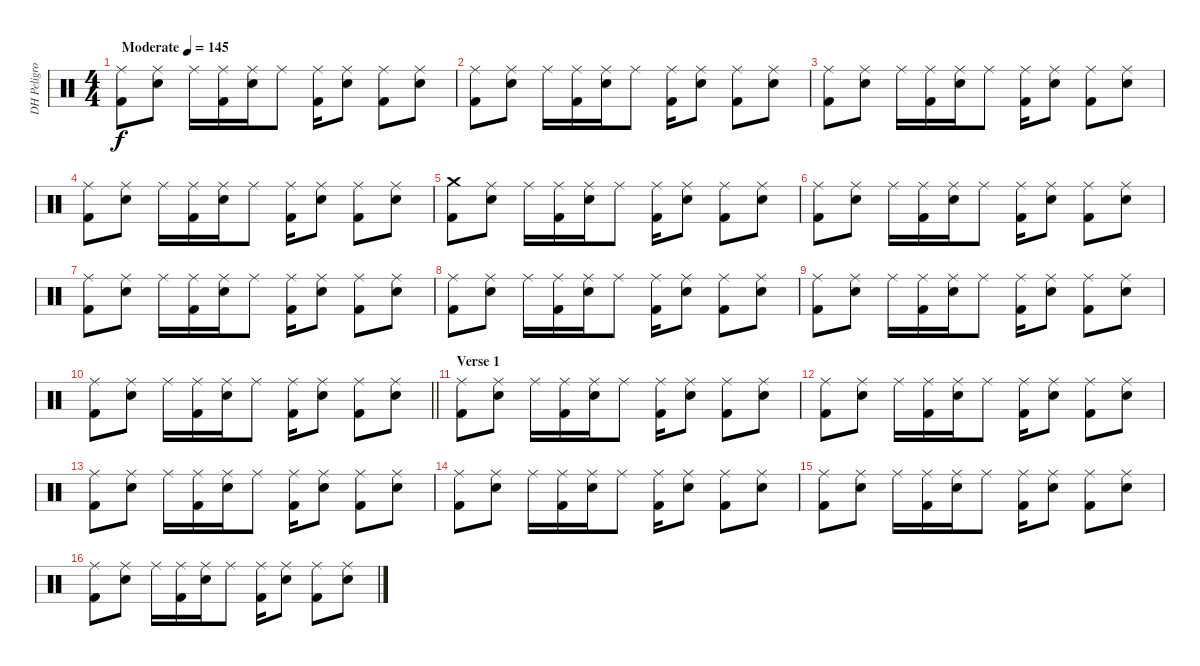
\track ("DH Peligro" "DH Peligro") {instrument percussion}
\staff {score}
\articulation defaults
\ts (4 4)
\tempo (145 "Moderate")
\clef neutral
\ks c
("Ride (middle)" "Kick (hit) 2").8{dy f} ("Ride (middle)" "Snare (hit) 2").8 "Ride (middle)".16 ("Ride (middle)" "Kick (hit) 2").16 ("Ride (middle)" "Snare (hit) 2").16 "Ride (middle)".8 ("Ride (middle)" "Kick (hit) 2").16 ("Ride (middle)" "Snare (hit) 2").8 ("Ride (middle)" "Kick (hit) 2").8 ("Ride (middle)" "Snare (hit) 2").8 |
("Ride (middle)" "Kick (hit) 2").8 ("Ride (middle)" "Snare (hit) 2").8 "Ride (middle)".16 ("Ride (middle)" "Kick (hit) 2").16 ("Ride (middle)" "Snare (hit) 2").16 "Ride (middle)".8 ("Ride (middle)" "Kick (hit) 2").16 ("Ride (middle)" "Snare (hit) 2").8 ("Ride (middle)" "Kick (hit) 2").8 ("Ride (middle)" "Snare (hit) 2").8 |
("Ride (middle)" "Kick (hit) 2").8 ("Ride (middle)" "Snare (hit) 2").8 "Ride (middle)".16 ("Ride (middle)" "Kick (hit) 2").16 ("Ride (middle)" "Snare (hit) 2").16 "Ride (middle)".8 ("Ride (middle)" "Kick (hit) 2").16 ("Ride (middle)" "Snare (hit) 2").8 ("Ride (middle)" "Kick (hit) 2").8 ("Ride (middle)" "Snare (hit) 2").8 |
("Ride (middle)" "Kick (hit) 2").8 ("Ride (middle)" "Snare (hit) 2").8 "Ride (middle)".16 ("Ride (middle)" "Kick (hit) 2").16 ("Ride (middle)" "Snare (hit) 2").16 "Ride (middle)".8 ("Ride (middle)" "Kick (hit) 2").16 ("Ride (middle)" "Snare (hit) 2").8 ("Ride (middle)" "Kick (hit) 2").8 ("Ride (middle)" "Snare (hit) 2").8 |
("Crash medium (hit)" "Kick (hit) 2").8 ("Ride (middle)" "Snare (hit) 2").8 "Ride (middle)".16 ("Ride (middle)" "Kick (hit) 2").16 ("Ride (middle)" "Snare (hit) 2").16 "Ride (middle)".8 ("Ride (middle)" "Kick (hit) 2").16 ("Ride (middle)" "Snare (hit) 2").8 ("Ride (middle)" "Kick (hit) 2").8 ("Ride (middle)" "Snare (hit) 2").8 |
("Ride (middle)" "Kick (hit) 2").8 ("Ride (middle)" "Snare (hit) 2").8 "Ride (middle)".16 ("Ride (middle)" "Kick (hit) 2").16 ("Ride (middle)" "Snare (hit) 2").16 "Ride (middle)".8 ("Ride (middle)" "Kick (hit) 2").16 ("Ride (middle)" "Snare (hit) 2").8 ("Ride (middle)" "Kick (hit) 2").8 ("Ride (middle)" "Snare (hit) 2").8 |
("Ride (middle)" "Kick (hit) 2").8 ("Ride (middle)" "Snare (hit) 2").8 "Ride (middle)".16 ("Ride (middle)" "Kick (hit) 2").16 ("Ride (middle)" "Snare (hit) 2").16 "Ride (middle)".8 ("Ride (middle)" "Kick (hit) 2").16 ("Ride (middle)" "Snare (hit) 2").8 ("Ride (middle)" "Kick (hit) 2").8 ("Ride (middle)" "Snare (hit) 2").8 |
("Ride (middle)" "Kick (hit) 2").8 ("Ride (middle)" "Snare (hit) 2").8 "Ride (middle)".16 ("Ride (middle)" "Kick (hit) 2").16 ("Ride (middle)" "Snare (hit) 2").16 "Ride (middle)".8 ("Ride (middle)" "Kick (hit) 2").16 ("Ride (middle)" "Snare (hit) 2").8 ("Ride (middle)" "Kick (hit) 2").8 ("Ride (middle)" "Snare (hit) 2").8 |
("Ride (middle)" "Kick (hit) 2").8 ("Ride (middle)" "Snare (hit) 2").8 "Ride (middle)".16 ("Ride (middle)" "Kick (hit) 2").16 ("Ride (middle)" "Snare (hit) 2").16 "Ride (middle)".8 ("Ride (middle)" "Kick (hit) 2").16 ("Ride (middle)" "Snare (hit) 2").8 ("Ride (middle)" "Kick (hit) 2").8 ("Ride (middle)" "Snare (hit) 2").8 |
\barLineRight lightlight
("Ride (middle)" "Kick (hit) 2").8 ("Ride (middle)" "Snare (hit) 2").8 "Ride (middle)".16 ("Ride (middle)" "Kick (hit) 2").16 ("Ride (middle)" "Snare (hit) 2").16 "Ride (middle)".8 ("Ride (middle)" "Kick (hit) 2").16 ("Ride (middle)" "Snare (hit) 2").8 ("Ride (middle)" "Kick (hit) 2").8 ("Ride (middle)" "Snare (hit) 2").8 |
\section ("" "Verse 1")
("Ride (middle)" "Kick (hit) 2").8 ("Ride (middle)" "Snare (hit) 2").8 "Ride (middle)".16 ("Ride (middle)" "Kick (hit) 2").16 ("Ride (middle)" "Snare (hit) 2").16 "Ride (middle)".8 ("Ride (middle)" "Kick (hit) 2").16 ("Ride (middle)" "Snare (hit) 2").8 ("Ride (middle)" "Kick (hit) 2").8 ("Ride (middle)" "Snare (hit) 2").8 |
("Ride (middle)" "Kick (hit) 2").8 ("Ride (middle)" "Snare (hit) 2").8 "Ride (middle)".16 ("Ride (middle)" "Kick (hit) 2").16 ("Ride (middle)" "Snare (hit) 2").16 "Ride (middle)".8 ("Ride (middle)" "Kick (hit) 2").16 ("Ride (middle)" "Snare (hit) 2").8 ("Ride (middle)" "Kick (hit) 2").8 ("Ride (middle)" "Snare (hit) 2").8 |
("Ride (middle)" "Kick (hit) 2").8 ("Ride (middle)" "Snare (hit) 2").8 "Ride (middle)".16 ("Ride (middle)" "Kick (hit) 2").16 ("Ride (middle)" "Snare (hit) 2").16 "Ride (middle)".8 ("Ride (middle)" "Kick (hit) 2").16 ("Ride (middle)" "Snare (hit) 2").8 ("Ride (middle)" "Kick (hit) 2").8 ("Ride (middle)" "Snare (hit) 2").8 |
("Ride (middle)" "Kick (hit) 2").8 ("Ride (middle)" "Snare (hit) 2").8 "Ride (middle)".16 ("Ride (middle)" "Kick (hit) 2").16 ("Ride (middle)" "Snare (hit) 2").16 "Ride (middle)".8 ("Ride (middle)" "Kick (hit) 2").16 ("Ride (middle)" "Snare (hit) 2").8 ("Ride (middle)" "Kick (hit) 2").8 ("Ride (middle)" "Snare (hit) 2").8 |
("Ride (middle)" "Kick (hit) 2").8 ("Ride (middle)" "Snare (hit) 2").8 "Ride (middle)".16 ("Ride (middle)" "Kick (hit) 2").16 ("Ride (middle)" "Snare (hit) 2").16 "Ride (middle)".8 ("Ride (middle)" "Kick (hit) 2").16 ("Ride (middle)" "Snare (hit) 2").8 ("Ride (middle)" "Kick (hit) 2").8 ("Ride (middle)" "Snare (hit) 2").8 |
("Ride (middle)" "Kick (hit) 2").8 ("Ride (middle)" "Snare (hit) 2").8 "Ride (middle)".16 ("Ride (middle)" "Kick (hit) 2").16 ("Ride (middle)" "Snare (hit) 2").16 "Ride (middle)".8 ("Ride (middle)" "Kick (hit) 2").16 ("Ride (middle)" "Snare (hit) 2").8 ("Ride (middle)" "Kick (hit) 2").8 ("Ride (middle)" "Snare (hit) 2").8
